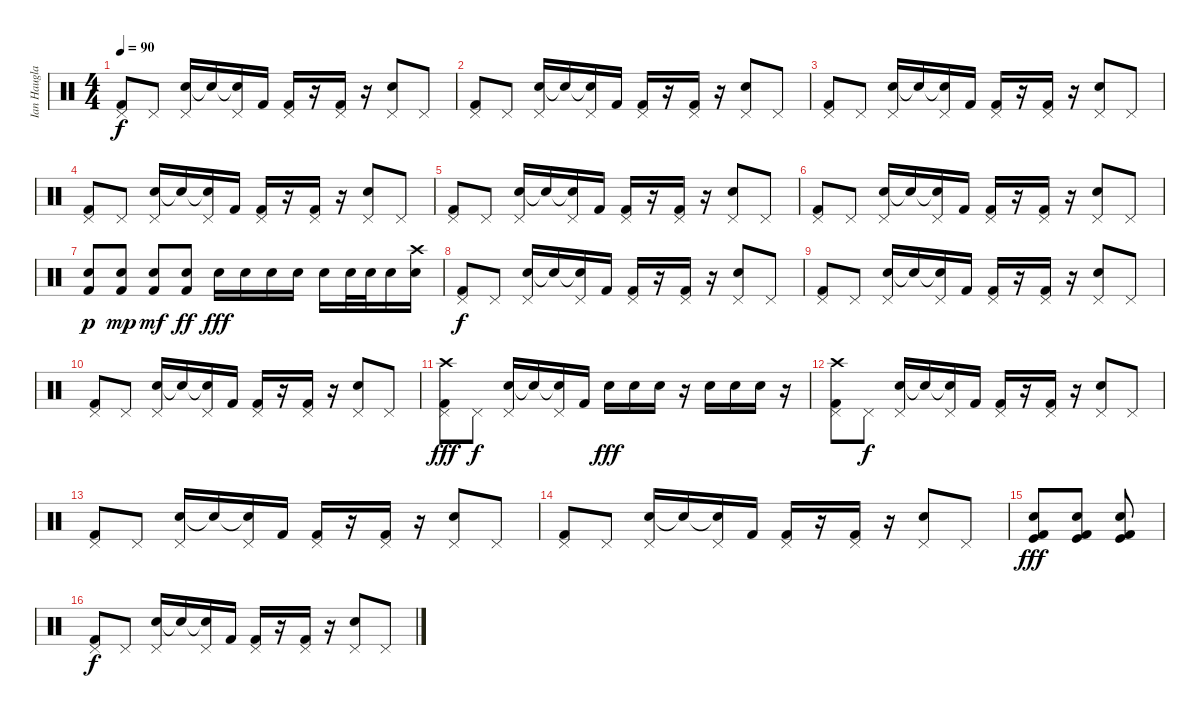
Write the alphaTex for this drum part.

\track ("Ian Haugland" "Ian Haugla") {instrument percussion}
\staff {score}
\articulation defaults
\ts (4 4)
\tempo 90
\clef neutral
\ks c
("Kick (hit) 2" "Pedal Hi-Hat (hit)").8{dy f} "Pedal Hi-Hat (hit)".8 ("Electric Snare (hit)" "Pedal Hi-Hat (hit)").16 "Snare (hit)"{t}.16 ("Snare (hit)"{t} "Pedal Hi-Hat (hit)").16 "Kick (hit) 2".16 ("Kick (hit) 2" "Pedal Hi-Hat (hit)").16 r.16 ("Kick (hit) 2" "Pedal Hi-Hat (hit)").16 r.16 ("Electric Snare (hit)" "Pedal Hi-Hat (hit)").8 "Pedal Hi-Hat (hit)".8 |
("Kick (hit) 2" "Pedal Hi-Hat (hit)").8 "Pedal Hi-Hat (hit)".8 ("Electric Snare (hit)" "Pedal Hi-Hat (hit)").16 "Snare (hit)"{t}.16 ("Snare (hit)"{t} "Pedal Hi-Hat (hit)").16 "Kick (hit) 2".16 ("Kick (hit) 2" "Pedal Hi-Hat (hit)").16 r.16 ("Kick (hit) 2" "Pedal Hi-Hat (hit)").16 r.16 ("Electric Snare (hit)" "Pedal Hi-Hat (hit)").8 "Pedal Hi-Hat (hit)".8 |
("Kick (hit) 2" "Pedal Hi-Hat (hit)").8 "Pedal Hi-Hat (hit)".8 ("Electric Snare (hit)" "Pedal Hi-Hat (hit)").16 "Snare (hit)"{t}.16 ("Snare (hit)"{t} "Pedal Hi-Hat (hit)").16 "Kick (hit) 2".16 ("Kick (hit) 2" "Pedal Hi-Hat (hit)").16 r.16 ("Kick (hit) 2" "Pedal Hi-Hat (hit)").16 r.16 ("Electric Snare (hit)" "Pedal Hi-Hat (hit)").8 "Pedal Hi-Hat (hit)".8 |
("Kick (hit) 2" "Pedal Hi-Hat (hit)").8 "Pedal Hi-Hat (hit)".8 ("Electric Snare (hit)" "Pedal Hi-Hat (hit)").16 "Snare (hit)"{t}.16 ("Snare (hit)"{t} "Pedal Hi-Hat (hit)").16 "Kick (hit) 2".16 ("Kick (hit) 2" "Pedal Hi-Hat (hit)").16 r.16 ("Kick (hit) 2" "Pedal Hi-Hat (hit)").16 r.16 ("Electric Snare (hit)" "Pedal Hi-Hat (hit)").8 "Pedal Hi-Hat (hit)".8 |
("Kick (hit) 2" "Pedal Hi-Hat (hit)").8 "Pedal Hi-Hat (hit)".8 ("Electric Snare (hit)" "Pedal Hi-Hat (hit)").16 "Snare (hit)"{t}.16 ("Snare (hit)"{t} "Pedal Hi-Hat (hit)").16 "Kick (hit) 2".16 ("Kick (hit) 2" "Pedal Hi-Hat (hit)").16 r.16 ("Kick (hit) 2" "Pedal Hi-Hat (hit)").16 r.16 ("Electric Snare (hit)" "Pedal Hi-Hat (hit)").8 "Pedal Hi-Hat (hit)".8 |
("Kick (hit) 2" "Pedal Hi-Hat (hit)").8 "Pedal Hi-Hat (hit)".8 ("Electric Snare (hit)" "Pedal Hi-Hat (hit)").16 "Snare (hit)"{t}.16 ("Snare (hit)"{t} "Pedal Hi-Hat (hit)").16 "Kick (hit) 2".16 ("Kick (hit) 2" "Pedal Hi-Hat (hit)").16 r.16 ("Kick (hit) 2" "Pedal Hi-Hat (hit)").16 r.16 ("Electric Snare (hit)" "Pedal Hi-Hat (hit)").8 "Pedal Hi-Hat (hit)".8 |
("Electric Snare (hit)" "Kick (hit) 2").8{dy p} ("Electric Snare (hit)" "Kick (hit) 2").8{dy mp} ("Electric Snare (hit)" "Kick (hit) 2").8{dy mf} ("Electric Snare (hit)" "Kick (hit) 2").8{dy ff} "Snare (hit) 2".16{dy fff} "Snare (hit) 2".16 "Snare (hit) 2".16 "Snare (hit) 2".16 "Snare (hit) 2".16 "Snare (hit) 2".32 "Snare (hit) 2".32 "Snare (hit) 2".16 ("Snare (hit) 2" "Crash high (hit)").16 |
("Kick (hit) 2" "Pedal Hi-Hat (hit)").8{dy f} "Pedal Hi-Hat (hit)".8 ("Electric Snare (hit)" "Pedal Hi-Hat (hit)").16 "Snare (hit)"{t}.16 ("Snare (hit)"{t} "Pedal Hi-Hat (hit)").16 "Kick (hit) 2".16 ("Kick (hit) 2" "Pedal Hi-Hat (hit)").16 r.16 ("Kick (hit) 2" "Pedal Hi-Hat (hit)").16 r.16 ("Electric Snare (hit)" "Pedal Hi-Hat (hit)").8 "Pedal Hi-Hat (hit)".8 |
("Kick (hit) 2" "Pedal Hi-Hat (hit)").8 "Pedal Hi-Hat (hit)".8 ("Electric Snare (hit)" "Pedal Hi-Hat (hit)").16 "Snare (hit)"{t}.16 ("Snare (hit)"{t} "Pedal Hi-Hat (hit)").16 "Kick (hit) 2".16 ("Kick (hit) 2" "Pedal Hi-Hat (hit)").16 r.16 ("Kick (hit) 2" "Pedal Hi-Hat (hit)").16 r.16 ("Electric Snare (hit)" "Pedal Hi-Hat (hit)").8 "Pedal Hi-Hat (hit)".8 |
("Kick (hit) 2" "Pedal Hi-Hat (hit)").8 "Pedal Hi-Hat (hit)".8 ("Electric Snare (hit)" "Pedal Hi-Hat (hit)").16 "Snare (hit)"{t}.16 ("Snare (hit)"{t} "Pedal Hi-Hat (hit)").16 "Kick (hit) 2".16 ("Kick (hit) 2" "Pedal Hi-Hat (hit)").16 r.16 ("Kick (hit) 2" "Pedal Hi-Hat (hit)").16 r.16 ("Electric Snare (hit)" "Pedal Hi-Hat (hit)").8 "Pedal Hi-Hat (hit)".8 |
("Kick (hit) 2" "Pedal Hi-Hat (hit)" "Crash high (hit)").8{dy fff} "Pedal Hi-Hat (hit)".8{dy f} ("Electric Snare (hit)" "Pedal Hi-Hat (hit)").16 "Snare (hit)"{t}.16 ("Snare (hit)"{t} "Pedal Hi-Hat (hit)").16 "Kick (hit) 2".16 "Snare (hit) 2".16{dy fff} "Snare (hit) 2".16 "Snare (hit) 2".16 r.16 "Snare (hit) 2".16 "Snare (hit) 2".16 "Snare (hit) 2".16 r.16 |
("Kick (hit) 2" "Pedal Hi-Hat (hit)" "Crash high (hit)").8 "Pedal Hi-Hat (hit)".8{dy f} ("Electric Snare (hit)" "Pedal Hi-Hat (hit)").16 "Snare (hit)"{t}.16 ("Snare (hit)"{t} "Pedal Hi-Hat (hit)").16 "Kick (hit) 2".16 ("Kick (hit) 2" "Pedal Hi-Hat (hit)").16 r.16 ("Kick (hit) 2" "Pedal Hi-Hat (hit)").16 r.16 ("Electric Snare (hit)" "Pedal Hi-Hat (hit)").8 "Pedal Hi-Hat (hit)".8 |
("Kick (hit) 2" "Pedal Hi-Hat (hit)").8 "Pedal Hi-Hat (hit)".8 ("Electric Snare (hit)" "Pedal Hi-Hat (hit)").16 "Snare (hit)"{t}.16 ("Snare (hit)"{t} "Pedal Hi-Hat (hit)").16 "Kick (hit) 2".16 ("Kick (hit) 2" "Pedal Hi-Hat (hit)").16 r.16 ("Kick (hit) 2" "Pedal Hi-Hat (hit)").16 r.16 ("Electric Snare (hit)" "Pedal Hi-Hat (hit)").8 "Pedal Hi-Hat (hit)".8 |
("Kick (hit) 2" "Pedal Hi-Hat (hit)").8 "Pedal Hi-Hat (hit)".8 ("Electric Snare (hit)" "Pedal Hi-Hat (hit)").16 "Snare (hit)"{t}.16 ("Snare (hit)"{t} "Pedal Hi-Hat (hit)").16 "Kick (hit) 2".16 ("Kick (hit) 2" "Pedal Hi-Hat (hit)").16 r.16 ("Kick (hit) 2" "Pedal Hi-Hat (hit)").16 r.16 ("Electric Snare (hit)" "Pedal Hi-Hat (hit)").8 "Pedal Hi-Hat (hit)".8 |
("Snare (hit) 2" "Kick (hit) 2" "Kick (hit)").8{dy fff} ("Snare (hit) 2" "Kick (hit) 2" "Kick (hit)").8 ("Snare (hit) 2" "Kick (hit) 2" "Kick (hit)").8 |
("Kick (hit) 2" "Pedal Hi-Hat (hit)").8{dy f} "Pedal Hi-Hat (hit)".8 ("Electric Snare (hit)" "Pedal Hi-Hat (hit)").16 "Snare (hit)"{t}.16 ("Snare (hit)"{t} "Pedal Hi-Hat (hit)").16 "Kick (hit) 2".16 ("Kick (hit) 2" "Pedal Hi-Hat (hit)").16 r.16 ("Kick (hit) 2" "Pedal Hi-Hat (hit)").16 r.16 ("Electric Snare (hit)" "Pedal Hi-Hat (hit)").8 "Pedal Hi-Hat (hit)".8
